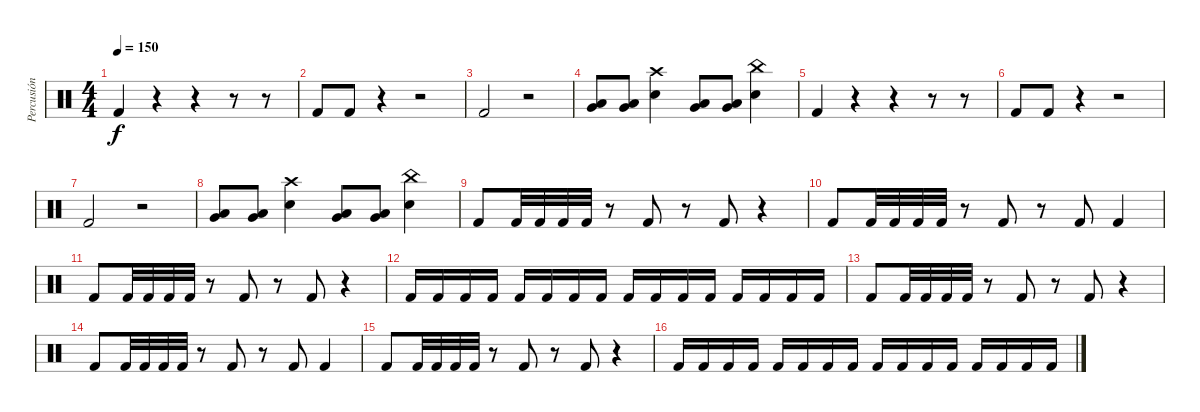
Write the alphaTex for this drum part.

\track ("Percusión" "Percusión") {instrument percussion}
\staff {score}
\articulation defaults
\ts (4 4)
\tempo 150
\clef neutral
\ks c "Kick (hit) 2".4{dy f}
r.4 r.4 r.8 r.8 |
"Kick (hit) 2".8 "Kick (hit) 2".8 r.4 r.2 |
"Kick (hit) 2".2 r.2 |
("Very Low Tom (hit)" "Low Floor Tom (hit)").8 ("Very Low Tom (hit)" "Low Floor Tom (hit)").8 ("Snare (hit) 2" "Crash high (hit)").4 ("Very Low Tom (hit)" "Low Floor Tom (hit)").8 ("Very Low Tom (hit)" "Low Floor Tom (hit)").8 ("Snare (hit) 2" "China (hit)").4 |
"Kick (hit) 2".4 r.4 r.4 r.8 r.8 |
"Kick (hit) 2".8 "Kick (hit) 2".8 r.4 r.2 |
"Kick (hit) 2".2 r.2 |
("Very Low Tom (hit)" "Low Floor Tom (hit)").8 ("Very Low Tom (hit)" "Low Floor Tom (hit)").8 ("Snare (hit) 2" "Crash high (hit)").4 ("Very Low Tom (hit)" "Low Floor Tom (hit)").8 ("Very Low Tom (hit)" "Low Floor Tom (hit)").8 ("Snare (hit) 2" "China (hit)").4 |
"Kick (hit) 2".8 "Kick (hit) 2".32 "Kick (hit) 2".32 "Kick (hit) 2".32 "Kick (hit) 2".32 r.8 "Kick (hit) 2".8 r.8 "Kick (hit) 2".8 r.4 |
"Kick (hit) 2".8 "Kick (hit) 2".32 "Kick (hit) 2".32 "Kick (hit) 2".32 "Kick (hit) 2".32 r.8 "Kick (hit) 2".8 r.8 "Kick (hit) 2".8 "Kick (hit) 2".4 |
"Kick (hit) 2".8 "Kick (hit) 2".32 "Kick (hit) 2".32 "Kick (hit) 2".32 "Kick (hit) 2".32 r.8 "Kick (hit) 2".8 r.8 "Kick (hit) 2".8 r.4 |
"Kick (hit) 2".16 "Kick (hit) 2".16 "Kick (hit) 2".16 "Kick (hit) 2".16 "Kick (hit) 2".16 "Kick (hit) 2".16 "Kick (hit) 2".16 "Kick (hit) 2".16 "Kick (hit) 2".16 "Kick (hit) 2".16 "Kick (hit) 2".16 "Kick (hit) 2".16 "Kick (hit) 2".16 "Kick (hit) 2".16 "Kick (hit) 2".16 "Kick (hit) 2".16 |
"Kick (hit) 2".8 "Kick (hit) 2".32 "Kick (hit) 2".32 "Kick (hit) 2".32 "Kick (hit) 2".32 r.8 "Kick (hit) 2".8 r.8 "Kick (hit) 2".8 r.4 |
"Kick (hit) 2".8 "Kick (hit) 2".32 "Kick (hit) 2".32 "Kick (hit) 2".32 "Kick (hit) 2".32 r.8 "Kick (hit) 2".8 r.8 "Kick (hit) 2".8 "Kick (hit) 2".4 |
"Kick (hit) 2".8 "Kick (hit) 2".32 "Kick (hit) 2".32 "Kick (hit) 2".32 "Kick (hit) 2".32 r.8 "Kick (hit) 2".8 r.8 "Kick (hit) 2".8 r.4 |
"Kick (hit) 2".16 "Kick (hit) 2".16 "Kick (hit) 2".16 "Kick (hit) 2".16 "Kick (hit) 2".16 "Kick (hit) 2".16 "Kick (hit) 2".16 "Kick (hit) 2".16 "Kick (hit) 2".16 "Kick (hit) 2".16 "Kick (hit) 2".16 "Kick (hit) 2".16 "Kick (hit) 2".16 "Kick (hit) 2".16 "Kick (hit) 2".16 "Kick (hit) 2".16
